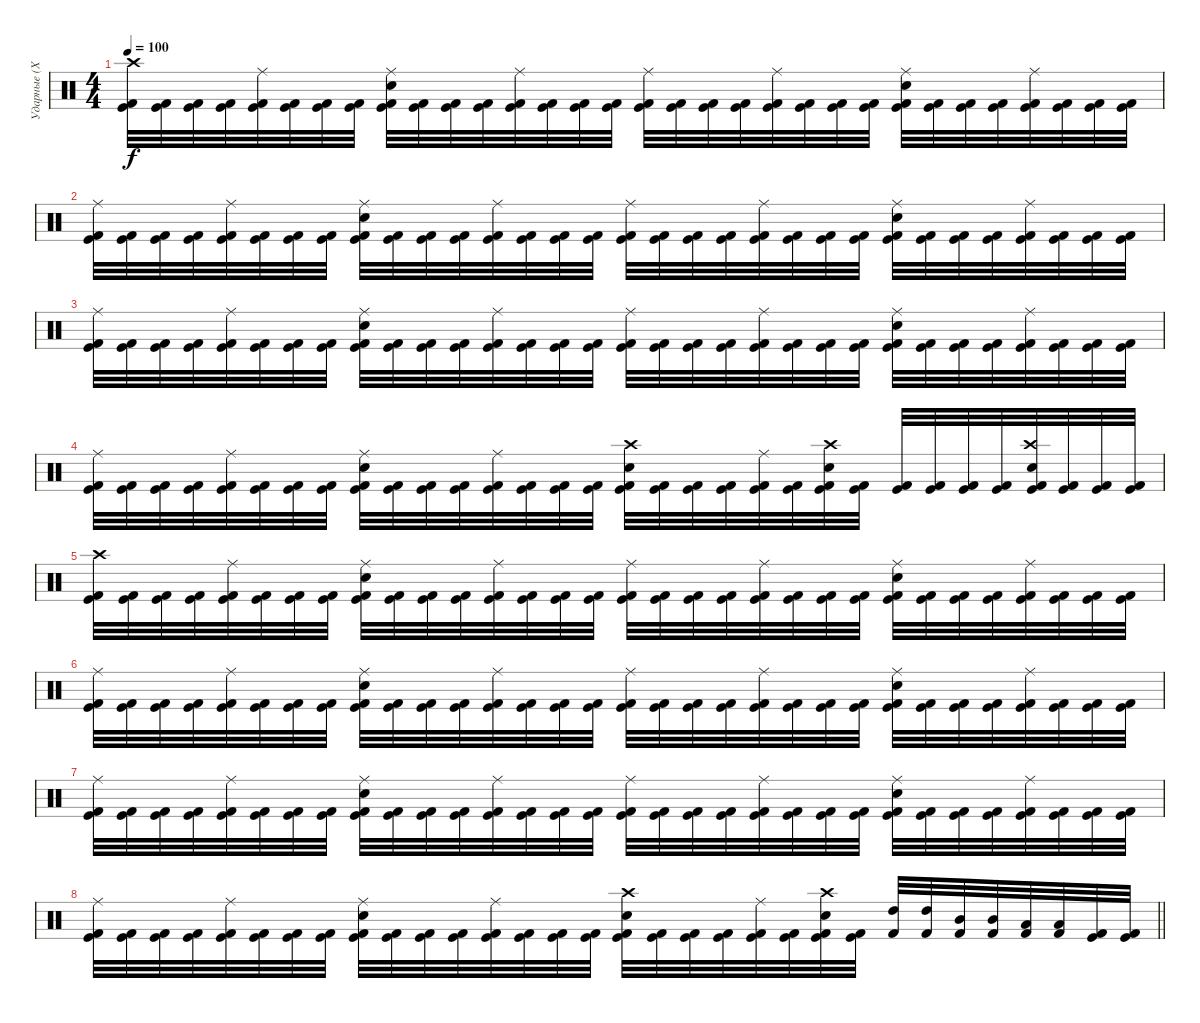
\track ("Ударные (Хеллхаммер)" "Ударные (Х") {instrument percussion}
\staff {score}
\articulation defaults
\ts (4 4)
\tempo 100
\clef neutral
\ks c
("Kick (hit) 2" "Crash high (hit)" "Kick (hit)").32{dy f} ("Kick (hit) 2" "Kick (hit)").32 ("Kick (hit) 2" "Kick (hit)").32 ("Kick (hit) 2" "Kick (hit)").32 ("Kick (hit) 2" "Ride (middle)" "Kick (hit)").32 ("Kick (hit) 2" "Kick (hit)").32 ("Kick (hit) 2" "Kick (hit)").32 ("Kick (hit) 2" "Kick (hit)").32 ("Kick (hit) 2" "Ride (middle)" "Electric Snare (hit)" "Kick (hit)").32 ("Kick (hit) 2" "Kick (hit)").32 ("Kick (hit) 2" "Kick (hit)").32 ("Kick (hit) 2" "Kick (hit)").32 ("Kick (hit) 2" "Ride (middle)" "Kick (hit)").32 ("Kick (hit) 2" "Kick (hit)").32 ("Kick (hit) 2" "Kick (hit)").32 ("Kick (hit) 2" "Kick (hit)").32 ("Kick (hit) 2" "Ride (middle)" "Kick (hit)").32 ("Kick (hit) 2" "Kick (hit)").32 ("Kick (hit) 2" "Kick (hit)").32 ("Kick (hit) 2" "Kick (hit)").32 ("Kick (hit) 2" "Ride (middle)" "Kick (hit)").32 ("Kick (hit) 2" "Kick (hit)").32 ("Kick (hit) 2" "Kick (hit)").32 ("Kick (hit) 2" "Kick (hit)").32 ("Kick (hit) 2" "Ride (middle)" "Electric Snare (hit)" "Kick (hit)").32 ("Kick (hit) 2" "Kick (hit)").32 ("Kick (hit) 2" "Kick (hit)").32 ("Kick (hit) 2" "Kick (hit)").32 ("Kick (hit) 2" "Ride (middle)" "Kick (hit)").32 ("Kick (hit) 2" "Kick (hit)").32 ("Kick (hit) 2" "Kick (hit)").32 ("Kick (hit) 2" "Kick (hit)").32 |
("Kick (hit) 2" "Ride (middle)" "Kick (hit)").32 ("Kick (hit) 2" "Kick (hit)").32 ("Kick (hit) 2" "Kick (hit)").32 ("Kick (hit) 2" "Kick (hit)").32 ("Kick (hit) 2" "Ride (middle)" "Kick (hit)").32 ("Kick (hit) 2" "Kick (hit)").32 ("Kick (hit) 2" "Kick (hit)").32 ("Kick (hit) 2" "Kick (hit)").32 ("Kick (hit) 2" "Ride (middle)" "Electric Snare (hit)" "Kick (hit)").32 ("Kick (hit) 2" "Kick (hit)").32 ("Kick (hit) 2" "Kick (hit)").32 ("Kick (hit) 2" "Kick (hit)").32 ("Kick (hit) 2" "Ride (middle)" "Kick (hit)").32 ("Kick (hit) 2" "Kick (hit)").32 ("Kick (hit) 2" "Kick (hit)").32 ("Kick (hit) 2" "Kick (hit)").32 ("Kick (hit) 2" "Ride (middle)" "Kick (hit)").32 ("Kick (hit) 2" "Kick (hit)").32 ("Kick (hit) 2" "Kick (hit)").32 ("Kick (hit) 2" "Kick (hit)").32 ("Kick (hit) 2" "Ride (middle)" "Kick (hit)").32 ("Kick (hit) 2" "Kick (hit)").32 ("Kick (hit) 2" "Kick (hit)").32 ("Kick (hit) 2" "Kick (hit)").32 ("Kick (hit) 2" "Ride (middle)" "Electric Snare (hit)" "Kick (hit)").32 ("Kick (hit) 2" "Kick (hit)").32 ("Kick (hit) 2" "Kick (hit)").32 ("Kick (hit) 2" "Kick (hit)").32 ("Kick (hit) 2" "Ride (middle)" "Kick (hit)").32 ("Kick (hit) 2" "Kick (hit)").32 ("Kick (hit) 2" "Kick (hit)").32 ("Kick (hit) 2" "Kick (hit)").32 |
("Kick (hit) 2" "Ride (middle)" "Kick (hit)").32 ("Kick (hit) 2" "Kick (hit)").32 ("Kick (hit) 2" "Kick (hit)").32 ("Kick (hit) 2" "Kick (hit)").32 ("Kick (hit) 2" "Ride (middle)" "Kick (hit)").32 ("Kick (hit) 2" "Kick (hit)").32 ("Kick (hit) 2" "Kick (hit)").32 ("Kick (hit) 2" "Kick (hit)").32 ("Kick (hit) 2" "Ride (middle)" "Electric Snare (hit)" "Kick (hit)").32 ("Kick (hit) 2" "Kick (hit)").32 ("Kick (hit) 2" "Kick (hit)").32 ("Kick (hit) 2" "Kick (hit)").32 ("Kick (hit) 2" "Ride (middle)" "Kick (hit)").32 ("Kick (hit) 2" "Kick (hit)").32 ("Kick (hit) 2" "Kick (hit)").32 ("Kick (hit) 2" "Kick (hit)").32 ("Kick (hit) 2" "Ride (middle)" "Kick (hit)").32 ("Kick (hit) 2" "Kick (hit)").32 ("Kick (hit) 2" "Kick (hit)").32 ("Kick (hit) 2" "Kick (hit)").32 ("Kick (hit) 2" "Ride (middle)" "Kick (hit)").32 ("Kick (hit) 2" "Kick (hit)").32 ("Kick (hit) 2" "Kick (hit)").32 ("Kick (hit) 2" "Kick (hit)").32 ("Kick (hit) 2" "Ride (middle)" "Electric Snare (hit)" "Kick (hit)").32 ("Kick (hit) 2" "Kick (hit)").32 ("Kick (hit) 2" "Kick (hit)").32 ("Kick (hit) 2" "Kick (hit)").32 ("Kick (hit) 2" "Ride (middle)" "Kick (hit)").32 ("Kick (hit) 2" "Kick (hit)").32 ("Kick (hit) 2" "Kick (hit)").32 ("Kick (hit) 2" "Kick (hit)").32 |
("Kick (hit) 2" "Ride (middle)" "Kick (hit)").32 ("Kick (hit) 2" "Kick (hit)").32 ("Kick (hit) 2" "Kick (hit)").32 ("Kick (hit) 2" "Kick (hit)").32 ("Kick (hit) 2" "Ride (middle)" "Kick (hit)").32 ("Kick (hit) 2" "Kick (hit)").32 ("Kick (hit) 2" "Kick (hit)").32 ("Kick (hit) 2" "Kick (hit)").32 ("Kick (hit) 2" "Ride (middle)" "Electric Snare (hit)" "Kick (hit)").32 ("Kick (hit) 2" "Kick (hit)").32 ("Kick (hit) 2" "Kick (hit)").32 ("Kick (hit) 2" "Kick (hit)").32 ("Kick (hit) 2" "Ride (middle)" "Kick (hit)").32 ("Kick (hit) 2" "Kick (hit)").32 ("Kick (hit) 2" "Kick (hit)").32 ("Kick (hit) 2" "Kick (hit)").32 ("Kick (hit) 2" "Crash high (hit)" "Electric Snare (hit)" "Kick (hit)").32 ("Kick (hit) 2" "Kick (hit)").32 ("Kick (hit) 2" "Kick (hit)").32 ("Kick (hit) 2" "Kick (hit)").32 ("Kick (hit) 2" "Ride (middle)" "Kick (hit)").32 ("Kick (hit) 2" "Kick (hit)").32 ("Kick (hit) 2" "Crash high (hit)" "Electric Snare (hit)" "Kick (hit)").32 ("Kick (hit) 2" "Kick (hit)").32 ("Kick (hit) 2" "Kick (hit)").32 ("Kick (hit) 2" "Kick (hit)").32 ("Kick (hit) 2" "Kick (hit)").32 ("Kick (hit) 2" "Kick (hit)").32 ("Kick (hit) 2" "Electric Snare (hit)" "Crash high (hit)" "Kick (hit)").32 ("Kick (hit) 2" "Kick (hit)").32 ("Kick (hit) 2" "Kick (hit)").32 ("Kick (hit) 2" "Kick (hit)").32 |
("Kick (hit) 2" "Crash high (hit)" "Kick (hit)").32 ("Kick (hit) 2" "Kick (hit)").32 ("Kick (hit) 2" "Kick (hit)").32 ("Kick (hit) 2" "Kick (hit)").32 ("Kick (hit) 2" "Ride (middle)" "Kick (hit)").32 ("Kick (hit) 2" "Kick (hit)").32 ("Kick (hit) 2" "Kick (hit)").32 ("Kick (hit) 2" "Kick (hit)").32 ("Kick (hit) 2" "Ride (middle)" "Electric Snare (hit)" "Kick (hit)").32 ("Kick (hit) 2" "Kick (hit)").32 ("Kick (hit) 2" "Kick (hit)").32 ("Kick (hit) 2" "Kick (hit)").32 ("Kick (hit) 2" "Ride (middle)" "Kick (hit)").32 ("Kick (hit) 2" "Kick (hit)").32 ("Kick (hit) 2" "Kick (hit)").32 ("Kick (hit) 2" "Kick (hit)").32 ("Kick (hit) 2" "Ride (middle)" "Kick (hit)").32 ("Kick (hit) 2" "Kick (hit)").32 ("Kick (hit) 2" "Kick (hit)").32 ("Kick (hit) 2" "Kick (hit)").32 ("Kick (hit) 2" "Ride (middle)" "Kick (hit)").32 ("Kick (hit) 2" "Kick (hit)").32 ("Kick (hit) 2" "Kick (hit)").32 ("Kick (hit) 2" "Kick (hit)").32 ("Kick (hit) 2" "Ride (middle)" "Electric Snare (hit)" "Kick (hit)").32 ("Kick (hit) 2" "Kick (hit)").32 ("Kick (hit) 2" "Kick (hit)").32 ("Kick (hit) 2" "Kick (hit)").32 ("Kick (hit) 2" "Ride (middle)" "Kick (hit)").32 ("Kick (hit) 2" "Kick (hit)").32 ("Kick (hit) 2" "Kick (hit)").32 ("Kick (hit) 2" "Kick (hit)").32 |
("Kick (hit) 2" "Ride (middle)" "Kick (hit)").32 ("Kick (hit) 2" "Kick (hit)").32 ("Kick (hit) 2" "Kick (hit)").32 ("Kick (hit) 2" "Kick (hit)").32 ("Kick (hit) 2" "Ride (middle)" "Kick (hit)").32 ("Kick (hit) 2" "Kick (hit)").32 ("Kick (hit) 2" "Kick (hit)").32 ("Kick (hit) 2" "Kick (hit)").32 ("Kick (hit) 2" "Ride (middle)" "Electric Snare (hit)" "Kick (hit)").32 ("Kick (hit) 2" "Kick (hit)").32 ("Kick (hit) 2" "Kick (hit)").32 ("Kick (hit) 2" "Kick (hit)").32 ("Kick (hit) 2" "Ride (middle)" "Kick (hit)").32 ("Kick (hit) 2" "Kick (hit)").32 ("Kick (hit) 2" "Kick (hit)").32 ("Kick (hit) 2" "Kick (hit)").32 ("Kick (hit) 2" "Ride (middle)" "Kick (hit)").32 ("Kick (hit) 2" "Kick (hit)").32 ("Kick (hit) 2" "Kick (hit)").32 ("Kick (hit) 2" "Kick (hit)").32 ("Kick (hit) 2" "Ride (middle)" "Kick (hit)").32 ("Kick (hit) 2" "Kick (hit)").32 ("Kick (hit) 2" "Kick (hit)").32 ("Kick (hit) 2" "Kick (hit)").32 ("Kick (hit) 2" "Ride (middle)" "Electric Snare (hit)" "Kick (hit)").32 ("Kick (hit) 2" "Kick (hit)").32 ("Kick (hit) 2" "Kick (hit)").32 ("Kick (hit) 2" "Kick (hit)").32 ("Kick (hit) 2" "Ride (middle)" "Kick (hit)").32 ("Kick (hit) 2" "Kick (hit)").32 ("Kick (hit) 2" "Kick (hit)").32 ("Kick (hit) 2" "Kick (hit)").32 |
("Kick (hit) 2" "Ride (middle)" "Kick (hit)").32 ("Kick (hit) 2" "Kick (hit)").32 ("Kick (hit) 2" "Kick (hit)").32 ("Kick (hit) 2" "Kick (hit)").32 ("Kick (hit) 2" "Ride (middle)" "Kick (hit)").32 ("Kick (hit) 2" "Kick (hit)").32 ("Kick (hit) 2" "Kick (hit)").32 ("Kick (hit) 2" "Kick (hit)").32 ("Kick (hit) 2" "Ride (middle)" "Electric Snare (hit)" "Kick (hit)").32 ("Kick (hit) 2" "Kick (hit)").32 ("Kick (hit) 2" "Kick (hit)").32 ("Kick (hit) 2" "Kick (hit)").32 ("Kick (hit) 2" "Ride (middle)" "Kick (hit)").32 ("Kick (hit) 2" "Kick (hit)").32 ("Kick (hit) 2" "Kick (hit)").32 ("Kick (hit) 2" "Kick (hit)").32 ("Kick (hit) 2" "Ride (middle)" "Kick (hit)").32 ("Kick (hit) 2" "Kick (hit)").32 ("Kick (hit) 2" "Kick (hit)").32 ("Kick (hit) 2" "Kick (hit)").32 ("Kick (hit) 2" "Ride (middle)" "Kick (hit)").32 ("Kick (hit) 2" "Kick (hit)").32 ("Kick (hit) 2" "Kick (hit)").32 ("Kick (hit) 2" "Kick (hit)").32 ("Kick (hit) 2" "Ride (middle)" "Electric Snare (hit)" "Kick (hit)").32 ("Kick (hit) 2" "Kick (hit)").32 ("Kick (hit) 2" "Kick (hit)").32 ("Kick (hit) 2" "Kick (hit)").32 ("Kick (hit) 2" "Ride (middle)" "Kick (hit)").32 ("Kick (hit) 2" "Kick (hit)").32 ("Kick (hit) 2" "Kick (hit)").32 ("Kick (hit) 2" "Kick (hit)").32 |
\barLineRight lightlight
("Kick (hit) 2" "Ride (middle)" "Kick (hit)").32 ("Kick (hit) 2" "Kick (hit)").32 ("Kick (hit) 2" "Kick (hit)").32 ("Kick (hit) 2" "Kick (hit)").32 ("Kick (hit) 2" "Ride (middle)" "Kick (hit)").32 ("Kick (hit) 2" "Kick (hit)").32 ("Kick (hit) 2" "Kick (hit)").32 ("Kick (hit) 2" "Kick (hit)").32 ("Kick (hit) 2" "Ride (middle)" "Electric Snare (hit)" "Kick (hit)").32 ("Kick (hit) 2" "Kick (hit)").32 ("Kick (hit) 2" "Kick (hit)").32 ("Kick (hit) 2" "Kick (hit)").32 ("Kick (hit) 2" "Ride (middle)" "Kick (hit)").32 ("Kick (hit) 2" "Kick (hit)").32 ("Kick (hit) 2" "Kick (hit)").32 ("Kick (hit) 2" "Kick (hit)").32 ("Kick (hit) 2" "Crash high (hit)" "Electric Snare (hit)" "Kick (hit)").32 ("Kick (hit) 2" "Kick (hit)").32 ("Kick (hit) 2" "Kick (hit)").32 ("Kick (hit) 2" "Kick (hit)").32 ("Kick (hit) 2" "Ride (middle)" "Kick (hit)").32 ("Kick (hit) 2" "Kick (hit)").32 ("Kick (hit) 2" "Crash high (hit)" "Electric Snare (hit)" "Kick (hit)").32 ("Kick (hit) 2" "Kick (hit)").32 ("Kick (hit) 2" "High Tom (hit)").32 ("Kick (hit) 2" "High Tom (hit)").32 ("Kick (hit) 2" "Mid Tom (hit)").32 ("Kick (hit) 2" "Mid Tom (hit)").32 ("Kick (hit) 2" "Low Tom (hit)").32 ("Kick (hit) 2" "Low Tom (hit)").32 ("Kick (hit) 2" "Kick (hit)").32 ("Kick (hit) 2" "Kick (hit)").32
